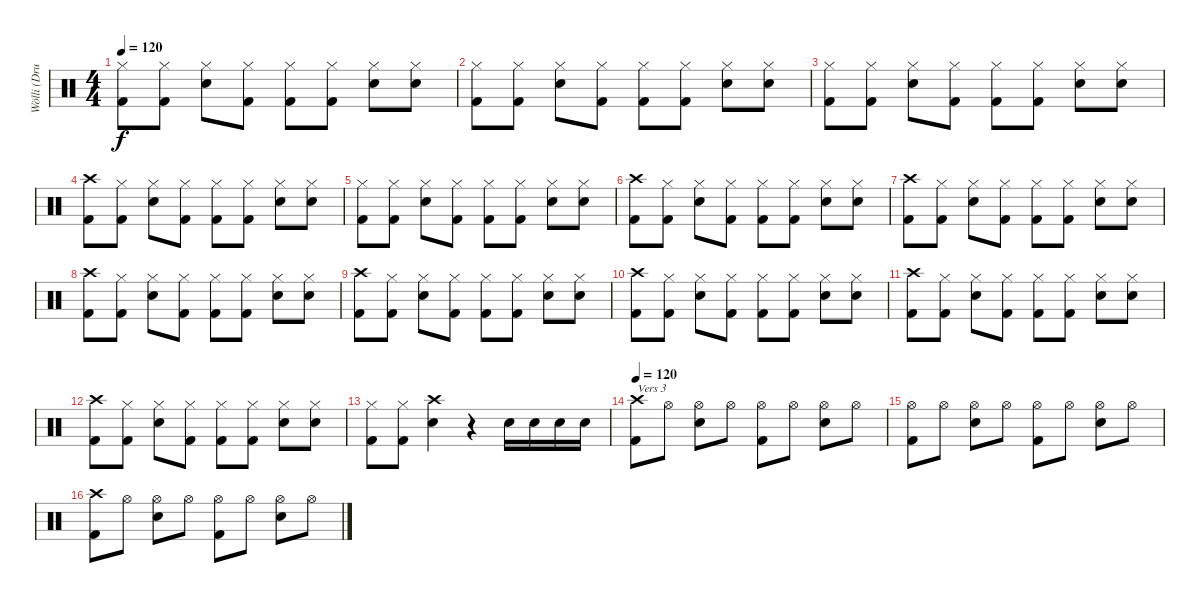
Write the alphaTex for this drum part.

\track ("Wölli (Drums)" "Wölli (Dru") {instrument percussion}
\staff {score}
\articulation defaults
\ts (4 4)
\tempo 120
\clef neutral
\ks c
("Hi-Hat (closed)" "Kick (hit) 2").8{dy f} ("Hi-Hat (closed)" "Kick (hit) 2").8 ("Hi-Hat (closed)" "Snare (hit) 2").8 ("Hi-Hat (closed)" "Kick (hit) 2").8 ("Hi-Hat (closed)" "Kick (hit) 2").8 ("Hi-Hat (closed)" "Kick (hit) 2").8 ("Hi-Hat (closed)" "Snare (hit) 2").8 ("Hi-Hat (closed)" "Snare (hit) 2").8 |
("Hi-Hat (closed)" "Kick (hit) 2").8 ("Hi-Hat (closed)" "Kick (hit) 2").8 ("Hi-Hat (closed)" "Snare (hit) 2").8 ("Hi-Hat (closed)" "Kick (hit) 2").8 ("Hi-Hat (closed)" "Kick (hit) 2").8 ("Hi-Hat (closed)" "Kick (hit) 2").8 ("Hi-Hat (closed)" "Snare (hit) 2").8 ("Hi-Hat (closed)" "Snare (hit) 2").8 |
("Hi-Hat (closed)" "Kick (hit) 2").8 ("Hi-Hat (closed)" "Kick (hit) 2").8 ("Hi-Hat (closed)" "Snare (hit) 2").8 ("Hi-Hat (closed)" "Kick (hit) 2").8 ("Hi-Hat (closed)" "Kick (hit) 2").8 ("Hi-Hat (closed)" "Kick (hit) 2").8 ("Hi-Hat (closed)" "Snare (hit) 2").8 ("Hi-Hat (closed)" "Snare (hit) 2").8 |
("Crash high (hit)" "Kick (hit) 2").8 ("Hi-Hat (closed)" "Kick (hit) 2").8 ("Hi-Hat (closed)" "Snare (hit) 2").8 ("Hi-Hat (closed)" "Kick (hit) 2").8 ("Hi-Hat (closed)" "Kick (hit) 2").8 ("Hi-Hat (closed)" "Kick (hit) 2").8 ("Hi-Hat (closed)" "Snare (hit) 2").8 ("Hi-Hat (closed)" "Snare (hit) 2").8 |
("Hi-Hat (closed)" "Kick (hit) 2").8 ("Hi-Hat (closed)" "Kick (hit) 2").8 ("Hi-Hat (closed)" "Snare (hit) 2").8 ("Hi-Hat (closed)" "Kick (hit) 2").8 ("Hi-Hat (closed)" "Kick (hit) 2").8 ("Hi-Hat (closed)" "Kick (hit) 2").8 ("Hi-Hat (closed)" "Snare (hit) 2").8 ("Hi-Hat (closed)" "Snare (hit) 2").8 |
("Crash high (hit)" "Kick (hit) 2").8 ("Hi-Hat (closed)" "Kick (hit) 2").8 ("Hi-Hat (closed)" "Snare (hit) 2").8 ("Hi-Hat (closed)" "Kick (hit) 2").8 ("Hi-Hat (closed)" "Kick (hit) 2").8 ("Hi-Hat (closed)" "Kick (hit) 2").8 ("Hi-Hat (closed)" "Snare (hit) 2").8 ("Hi-Hat (closed)" "Snare (hit) 2").8 |
("Crash high (hit)" "Kick (hit) 2").8 ("Hi-Hat (closed)" "Kick (hit) 2").8 ("Hi-Hat (closed)" "Snare (hit) 2").8 ("Hi-Hat (closed)" "Kick (hit) 2").8 ("Hi-Hat (closed)" "Kick (hit) 2").8 ("Hi-Hat (closed)" "Kick (hit) 2").8 ("Hi-Hat (closed)" "Snare (hit) 2").8 ("Hi-Hat (closed)" "Snare (hit) 2").8 |
("Crash high (hit)" "Kick (hit) 2").8 ("Hi-Hat (closed)" "Kick (hit) 2").8 ("Hi-Hat (closed)" "Snare (hit) 2").8 ("Hi-Hat (closed)" "Kick (hit) 2").8 ("Hi-Hat (closed)" "Kick (hit) 2").8 ("Hi-Hat (closed)" "Kick (hit) 2").8 ("Hi-Hat (closed)" "Snare (hit) 2").8 ("Hi-Hat (closed)" "Snare (hit) 2").8 |
("Crash high (hit)" "Kick (hit) 2").8 ("Hi-Hat (closed)" "Kick (hit) 2").8 ("Hi-Hat (closed)" "Snare (hit) 2").8 ("Hi-Hat (closed)" "Kick (hit) 2").8 ("Hi-Hat (closed)" "Kick (hit) 2").8 ("Hi-Hat (closed)" "Kick (hit) 2").8 ("Hi-Hat (closed)" "Snare (hit) 2").8 ("Hi-Hat (closed)" "Snare (hit) 2").8 |
("Crash high (hit)" "Kick (hit) 2").8 ("Hi-Hat (closed)" "Kick (hit) 2").8 ("Hi-Hat (closed)" "Snare (hit) 2").8 ("Hi-Hat (closed)" "Kick (hit) 2").8 ("Hi-Hat (closed)" "Kick (hit) 2").8 ("Hi-Hat (closed)" "Kick (hit) 2").8 ("Hi-Hat (closed)" "Snare (hit) 2").8 ("Hi-Hat (closed)" "Snare (hit) 2").8 |
("Crash high (hit)" "Kick (hit) 2").8 ("Hi-Hat (closed)" "Kick (hit) 2").8 ("Hi-Hat (closed)" "Snare (hit) 2").8 ("Hi-Hat (closed)" "Kick (hit) 2").8 ("Hi-Hat (closed)" "Kick (hit) 2").8 ("Hi-Hat (closed)" "Kick (hit) 2").8 ("Hi-Hat (closed)" "Snare (hit) 2").8 ("Hi-Hat (closed)" "Snare (hit) 2").8 |
("Crash high (hit)" "Kick (hit) 2").8 ("Hi-Hat (closed)" "Kick (hit) 2").8 ("Hi-Hat (closed)" "Snare (hit) 2").8 ("Hi-Hat (closed)" "Kick (hit) 2").8 ("Hi-Hat (closed)" "Kick (hit) 2").8 ("Hi-Hat (closed)" "Kick (hit) 2").8 ("Hi-Hat (closed)" "Snare (hit) 2").8 ("Hi-Hat (closed)" "Snare (hit) 2").8 |
("Hi-Hat (closed)" "Kick (hit) 2").8 ("Hi-Hat (closed)" "Kick (hit) 2").8 ("Crash high (hit)" "Snare (hit) 2").4 r.4 "Snare (hit) 2".16 "Snare (hit) 2".16 "Snare (hit) 2".16 "Snare (hit) 2".16 |
\tempo 120
("Crash high (hit)" "Kick (hit) 2").8{txt "Vers 3"} "Hi-Hat (open)".8 ("Hi-Hat (open)" "Snare (hit) 2").8 "Hi-Hat (open)".8 ("Hi-Hat (open)" "Kick (hit) 2").8 "Hi-Hat (open)".8 ("Hi-Hat (open)" "Snare (hit) 2").8 "Hi-Hat (open)".8 |
("Hi-Hat (open)" "Kick (hit) 2").8 "Hi-Hat (open)".8 ("Hi-Hat (open)" "Snare (hit) 2").8 "Hi-Hat (open)".8 ("Hi-Hat (open)" "Kick (hit) 2").8 "Hi-Hat (open)".8 ("Hi-Hat (open)" "Snare (hit) 2").8 "Hi-Hat (open)".8 |
("Crash high (hit)" "Kick (hit) 2").8 "Hi-Hat (open)".8 ("Hi-Hat (open)" "Snare (hit) 2").8 "Hi-Hat (open)".8 ("Hi-Hat (open)" "Kick (hit) 2").8 "Hi-Hat (open)".8 ("Hi-Hat (open)" "Snare (hit) 2").8 "Hi-Hat (open)".8
